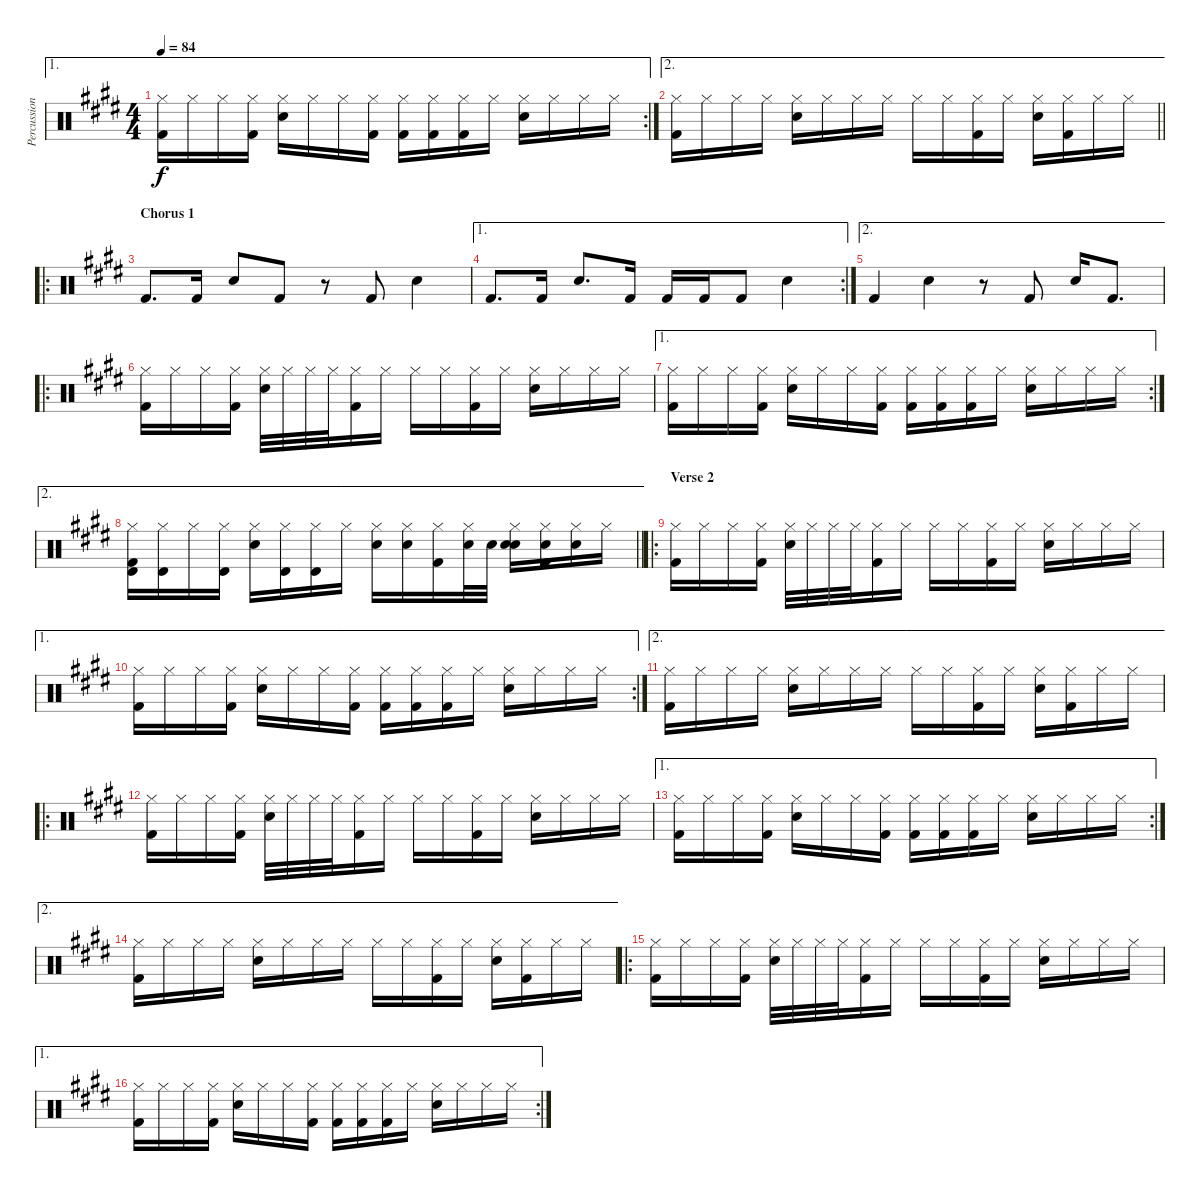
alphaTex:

\track ("Percussion" "Percussion") {instrument percussion}
\staff {score}
\articulation defaults
\ae 1
\rc 2
\ts (4 4)
\tempo 84
\clef neutral
\ks e
("Hi-Hat (closed)" "Kick (hit) 2").16{dy f} "Hi-Hat (closed)".16 "Hi-Hat (closed)".16 ("Hi-Hat (closed)" "Kick (hit) 2").16 ("Hi-Hat (closed)" "Hand Clap (hit)").16 "Hi-Hat (closed)".16 "Hi-Hat (closed)".16 ("Hi-Hat (closed)" "Kick (hit) 2").16 ("Hi-Hat (closed)" "Kick (hit) 2").16 ("Hi-Hat (closed)" "Kick (hit) 2").16 ("Hi-Hat (closed)" "Kick (hit) 2").16 "Hi-Hat (closed)".16 ("Hi-Hat (closed)" "Hand Clap (hit)").16 "Hi-Hat (closed)".16 "Hi-Hat (closed)".16 "Hi-Hat (closed)".16 |
\ae 2
\barLineRight lightlight
("Hi-Hat (closed)" "Kick (hit) 2").16 "Hi-Hat (closed)".16 "Hi-Hat (closed)".16 "Hi-Hat (closed)".16 ("Hi-Hat (closed)" "Hand Clap (hit)").16 "Hi-Hat (closed)".16 "Hi-Hat (closed)".16 "Hi-Hat (closed)".16 "Hi-Hat (closed)".16 "Hi-Hat (closed)".16 ("Hi-Hat (closed)" "Kick (hit) 2").16 "Hi-Hat (closed)".16 ("Hi-Hat (closed)" "Hand Clap (hit)").16 ("Hi-Hat (closed)" "Kick (hit) 2").16 "Hi-Hat (closed)".16 "Hi-Hat (closed)".16 |
\ro
\section ("" "Chorus 1")
"Kick (hit) 2".8{d} "Kick (hit) 2".16 "Hand Clap (hit)".8 "Kick (hit) 2".8 r.8 "Kick (hit) 2".8 "Hand Clap (hit)".4 |
\ae 1
\rc 2 "Kick (hit) 2".8{d} "Kick (hit) 2".16 "Hand Clap (hit)".8{d} "Kick (hit) 2".16 "Kick (hit) 2".16 "Kick (hit) 2".16 "Kick (hit) 2".8 "Hand Clap (hit)".4
|
\ae 2 "Kick (hit) 2".4 "Hand Clap (hit)".4
r.8 "Kick (hit) 2".8 "Hand Clap (hit)".16 "Kick (hit) 2".8{d} |
\ro
("Hi-Hat (closed)" "Kick (hit) 2").16 "Hi-Hat (closed)".16 "Hi-Hat (closed)".16 ("Hi-Hat (closed)" "Kick (hit) 2").16 ("Hi-Hat (closed)" "Hand Clap (hit)").32 "Hi-Hat (closed)".32 "Hi-Hat (closed)".32 "Hi-Hat (closed)".32 ("Hi-Hat (closed)" "Kick (hit) 2").16 "Hi-Hat (closed)".16 "Hi-Hat (closed)".16 "Hi-Hat (closed)".16 ("Hi-Hat (closed)" "Kick (hit) 2").16 "Hi-Hat (closed)".16 ("Hi-Hat (closed)" "Hand Clap (hit)").16 "Hi-Hat (closed)".16 "Hi-Hat (closed)".16 "Hi-Hat (closed)".16 |
\ae 1
\rc 2
("Hi-Hat (closed)" "Kick (hit) 2").16 "Hi-Hat (closed)".16 "Hi-Hat (closed)".16 ("Hi-Hat (closed)" "Kick (hit) 2").16 ("Hi-Hat (closed)" "Hand Clap (hit)").16 "Hi-Hat (closed)".16 "Hi-Hat (closed)".16 ("Hi-Hat (closed)" "Kick (hit) 2").16 ("Hi-Hat (closed)" "Kick (hit) 2").16 ("Hi-Hat (closed)" "Kick (hit) 2").16 ("Hi-Hat (closed)" "Kick (hit) 2").16 "Hi-Hat (closed)".16 ("Hi-Hat (closed)" "Hand Clap (hit)").16 "Hi-Hat (closed)".16 "Hi-Hat (closed)".16 "Hi-Hat (closed)".16 |
\ae 2
\barLineRight lightlight
("Hi-Hat (closed)" "Timbale high (hit)" "Kick (hit) 2").16 ("Hi-Hat (closed)" "Timbale high (hit)").16 "Hi-Hat (closed)".16 ("Hi-Hat (closed)" "Timbale high (hit)").16 ("Hi-Hat (closed)" "Hand Clap (hit)").16 ("Hi-Hat (closed)" "Timbale high (hit)").16 ("Hi-Hat (closed)" "Timbale high (hit)").16 "Hi-Hat (closed)".16 ("Hi-Hat (closed)" "Snare (hit) 2").16 ("Hi-Hat (closed)" "Snare (hit) 2").16 ("Hi-Hat (closed)" "Kick (hit) 2").16 ("Hi-Hat (closed)" "Snare (hit) 2").32 "Snare (hit) 2".32 ("Hi-Hat (closed)" "Snare (hit) 2" "Hand Clap (hit)").16 ("Hi-Hat (closed)" "Snare (hit) 2" "Kick (hit) 2").16 ("Hi-Hat (closed)" "Snare (hit) 2").16 "Hi-Hat (closed)".16 |
\ro
\section ("" "Verse 2")
("Hi-Hat (closed)" "Kick (hit) 2").16 "Hi-Hat (closed)".16 "Hi-Hat (closed)".16 ("Hi-Hat (closed)" "Kick (hit) 2").16 ("Hi-Hat (closed)" "Hand Clap (hit)").32 "Hi-Hat (closed)".32 "Hi-Hat (closed)".32 "Hi-Hat (closed)".32 ("Hi-Hat (closed)" "Kick (hit) 2").16 "Hi-Hat (closed)".16 "Hi-Hat (closed)".16 "Hi-Hat (closed)".16 ("Hi-Hat (closed)" "Kick (hit) 2").16 "Hi-Hat (closed)".16 ("Hi-Hat (closed)" "Hand Clap (hit)").16 "Hi-Hat (closed)".16 "Hi-Hat (closed)".16 "Hi-Hat (closed)".16 |
\ae 1
\rc 2
("Hi-Hat (closed)" "Kick (hit) 2").16 "Hi-Hat (closed)".16 "Hi-Hat (closed)".16 ("Hi-Hat (closed)" "Kick (hit) 2").16 ("Hi-Hat (closed)" "Hand Clap (hit)").16 "Hi-Hat (closed)".16 "Hi-Hat (closed)".16 ("Hi-Hat (closed)" "Kick (hit) 2").16 ("Hi-Hat (closed)" "Kick (hit) 2").16 ("Hi-Hat (closed)" "Kick (hit) 2").16 ("Hi-Hat (closed)" "Kick (hit) 2").16 "Hi-Hat (closed)".16 ("Hi-Hat (closed)" "Hand Clap (hit)").16 "Hi-Hat (closed)".16 "Hi-Hat (closed)".16 "Hi-Hat (closed)".16 |
\ae 2
("Hi-Hat (closed)" "Kick (hit) 2").16 "Hi-Hat (closed)".16 "Hi-Hat (closed)".16 "Hi-Hat (closed)".16 ("Hi-Hat (closed)" "Hand Clap (hit)").16 "Hi-Hat (closed)".16 "Hi-Hat (closed)".16 "Hi-Hat (closed)".16 "Hi-Hat (closed)".16 "Hi-Hat (closed)".16 ("Hi-Hat (closed)" "Kick (hit) 2").16 "Hi-Hat (closed)".16 ("Hi-Hat (closed)" "Hand Clap (hit)").16 ("Hi-Hat (closed)" "Kick (hit) 2").16 "Hi-Hat (closed)".16 "Hi-Hat (closed)".16 |
\ro
("Hi-Hat (closed)" "Kick (hit) 2").16 "Hi-Hat (closed)".16 "Hi-Hat (closed)".16 ("Hi-Hat (closed)" "Kick (hit) 2").16 ("Hi-Hat (closed)" "Hand Clap (hit)").32 "Hi-Hat (closed)".32 "Hi-Hat (closed)".32 "Hi-Hat (closed)".32 ("Hi-Hat (closed)" "Kick (hit) 2").16 "Hi-Hat (closed)".16 "Hi-Hat (closed)".16 "Hi-Hat (closed)".16 ("Hi-Hat (closed)" "Kick (hit) 2").16 "Hi-Hat (closed)".16 ("Hi-Hat (closed)" "Hand Clap (hit)").16 "Hi-Hat (closed)".16 "Hi-Hat (closed)".16 "Hi-Hat (closed)".16 |
\ae 1
\rc 2
("Hi-Hat (closed)" "Kick (hit) 2").16 "Hi-Hat (closed)".16 "Hi-Hat (closed)".16 ("Hi-Hat (closed)" "Kick (hit) 2").16 ("Hi-Hat (closed)" "Hand Clap (hit)").16 "Hi-Hat (closed)".16 "Hi-Hat (closed)".16 ("Hi-Hat (closed)" "Kick (hit) 2").16 ("Hi-Hat (closed)" "Kick (hit) 2").16 ("Hi-Hat (closed)" "Kick (hit) 2").16 ("Hi-Hat (closed)" "Kick (hit) 2").16 "Hi-Hat (closed)".16 ("Hi-Hat (closed)" "Hand Clap (hit)").16 "Hi-Hat (closed)".16 "Hi-Hat (closed)".16 "Hi-Hat (closed)".16 |
\ae 2
("Hi-Hat (closed)" "Kick (hit) 2").16 "Hi-Hat (closed)".16 "Hi-Hat (closed)".16 "Hi-Hat (closed)".16 ("Hi-Hat (closed)" "Hand Clap (hit)").16 "Hi-Hat (closed)".16 "Hi-Hat (closed)".16 "Hi-Hat (closed)".16 "Hi-Hat (closed)".16 "Hi-Hat (closed)".16 ("Hi-Hat (closed)" "Kick (hit) 2").16 "Hi-Hat (closed)".16 ("Hi-Hat (closed)" "Hand Clap (hit)").16 ("Hi-Hat (closed)" "Kick (hit) 2").16 "Hi-Hat (closed)".16 "Hi-Hat (closed)".16 |
\ro
("Hi-Hat (closed)" "Kick (hit) 2").16 "Hi-Hat (closed)".16 "Hi-Hat (closed)".16 ("Hi-Hat (closed)" "Kick (hit) 2").16 ("Hi-Hat (closed)" "Hand Clap (hit)").32 "Hi-Hat (closed)".32 "Hi-Hat (closed)".32 "Hi-Hat (closed)".32 ("Hi-Hat (closed)" "Kick (hit) 2").16 "Hi-Hat (closed)".16 "Hi-Hat (closed)".16 "Hi-Hat (closed)".16 ("Hi-Hat (closed)" "Kick (hit) 2").16 "Hi-Hat (closed)".16 ("Hi-Hat (closed)" "Hand Clap (hit)").16 "Hi-Hat (closed)".16 "Hi-Hat (closed)".16 "Hi-Hat (closed)".16 |
\ae 1
\rc 2
("Hi-Hat (closed)" "Kick (hit) 2").16 "Hi-Hat (closed)".16 "Hi-Hat (closed)".16 ("Hi-Hat (closed)" "Kick (hit) 2").16 ("Hi-Hat (closed)" "Hand Clap (hit)").16 "Hi-Hat (closed)".16 "Hi-Hat (closed)".16 ("Hi-Hat (closed)" "Kick (hit) 2").16 ("Hi-Hat (closed)" "Kick (hit) 2").16 ("Hi-Hat (closed)" "Kick (hit) 2").16 ("Hi-Hat (closed)" "Kick (hit) 2").16 "Hi-Hat (closed)".16 ("Hi-Hat (closed)" "Hand Clap (hit)").16 "Hi-Hat (closed)".16 "Hi-Hat (closed)".16 "Hi-Hat (closed)".16
